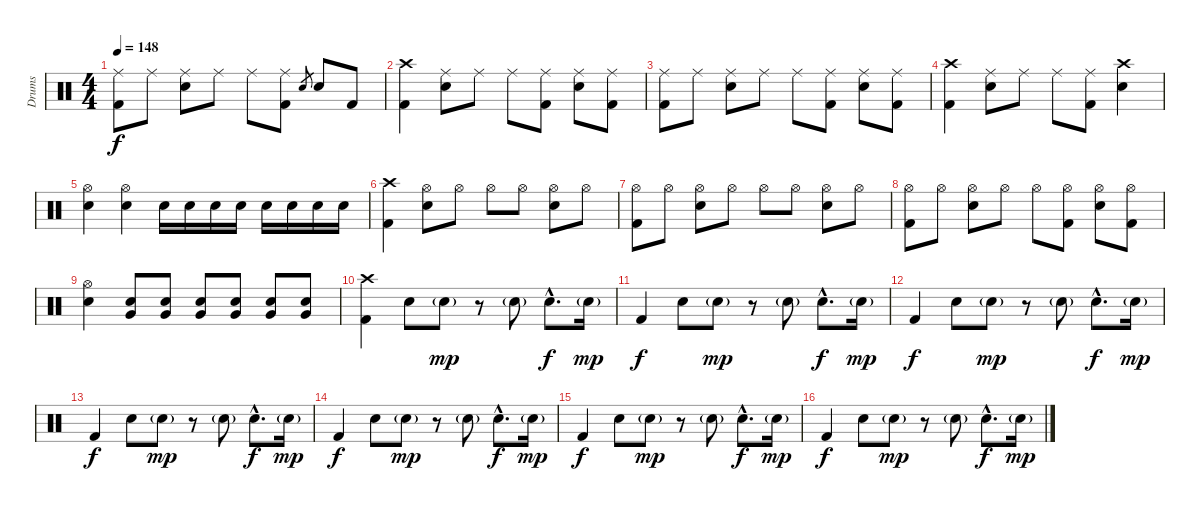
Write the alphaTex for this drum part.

\track ("Drums" "Drums") {instrument percussion}
\staff {score}
\articulation defaults
\ts (4 4)
\tempo 148
\clef neutral
\ks c
("Ride (middle)" "Kick (hit) 2").8{dy f} "Ride (middle)".8 ("Ride (middle)" "Electric Snare (hit)").8 "Ride (middle)".8 "Ride (middle)".8 ("Ride (middle)" "Kick (hit) 2").8 "Electric Snare (hit)".8{gr} "Electric Snare (hit)".8 "Kick (hit) 2".8 |
("Crash high (hit)" "Kick (hit) 2").4 ("Ride (middle)" "Electric Snare (hit)").8 "Ride (middle)".8 "Ride (middle)".8 ("Ride (middle)" "Kick (hit) 2").8 ("Ride (middle)" "Electric Snare (hit)").8 ("Ride (middle)" "Kick (hit) 2").8 |
("Ride (middle)" "Kick (hit) 2").8 "Ride (middle)".8 ("Ride (middle)" "Electric Snare (hit)").8 "Ride (middle)".8 "Ride (middle)".8 ("Ride (middle)" "Kick (hit) 2").8 ("Ride (middle)" "Electric Snare (hit)").8 ("Ride (middle)" "Kick (hit) 2").8 |
("Crash high (hit)" "Kick (hit) 2").4 ("Ride (middle)" "Electric Snare (hit)").8 "Ride (middle)".8 "Ride (middle)".8 ("Ride (middle)" "Kick (hit) 2").8 ("Crash high (hit)" "Electric Snare (hit)").4 |
("Hi-Hat (open)" "Electric Snare (hit)").4 ("Hi-Hat (open)" "Electric Snare (hit)").4 "Electric Snare (hit)".16 "Electric Snare (hit)".16 "Electric Snare (hit)".16 "Electric Snare (hit)".16 "Electric Snare (hit)".16 "Electric Snare (hit)".16 "Electric Snare (hit)".16 "Electric Snare (hit)".16 |
("Crash high (hit)" "Kick (hit) 2").4 ("Hi-Hat (open)" "Electric Snare (hit)").8 "Hi-Hat (open)".8 "Hi-Hat (open)".8 "Hi-Hat (open)".8 ("Hi-Hat (open)" "Electric Snare (hit)").8 "Hi-Hat (open)".8 |
("Hi-Hat (open)" "Kick (hit) 2").8 "Hi-Hat (open)".8 ("Hi-Hat (open)" "Electric Snare (hit)").8 "Hi-Hat (open)".8 "Hi-Hat (open)".8 "Hi-Hat (open)".8 ("Hi-Hat (open)" "Electric Snare (hit)").8 "Hi-Hat (open)".8 |
("Hi-Hat (open)" "Kick (hit) 2").8 "Hi-Hat (open)".8 ("Hi-Hat (open)" "Electric Snare (hit)").8 "Hi-Hat (open)".8 "Hi-Hat (open)".8 ("Hi-Hat (open)" "Kick (hit) 2").8 ("Hi-Hat (open)" "Electric Snare (hit)").8 ("Hi-Hat (open)" "Kick (hit) 2").8 |
("Hi-Hat (open)" "Electric Snare (hit)").4 ("Very Low Tom (hit)" "Electric Snare (hit)").8 ("Very Low Tom (hit)" "Electric Snare (hit)").8 ("Very Low Tom (hit)" "Electric Snare (hit)").8 ("Very Low Tom (hit)" "Electric Snare (hit)").8 ("Very Low Tom (hit)" "Electric Snare (hit)").8 ("Very Low Tom (hit)" "Electric Snare (hit)").8 |
("Crash high (hit)" "Kick (hit) 2").4 "Electric Snare (hit)".8 "Electric Snare (hit)"{g}.8{dy mp} r.8 "Electric Snare (hit)"{g}.8 "Electric Snare (hit)"{hac}.8{d dy f} "Electric Snare (hit)"{g}.16{dy mp} |
"Kick (hit) 2".4{dy f} "Electric Snare (hit)".8 "Electric Snare (hit)"{g}.8{dy mp} r.8 "Electric Snare (hit)"{g}.8 "Electric Snare (hit)"{hac}.8{d dy f} "Electric Snare (hit)"{g}.16{dy mp} |
"Kick (hit) 2".4{dy f} "Electric Snare (hit)".8 "Electric Snare (hit)"{g}.8{dy mp} r.8 "Electric Snare (hit)"{g}.8 "Electric Snare (hit)"{hac}.8{d dy f} "Electric Snare (hit)"{g}.16{dy mp} |
"Kick (hit) 2".4{dy f} "Electric Snare (hit)".8 "Electric Snare (hit)"{g}.8{dy mp} r.8 "Electric Snare (hit)"{g}.8 "Electric Snare (hit)"{hac}.8{d dy f} "Electric Snare (hit)"{g}.16{dy mp} |
"Kick (hit) 2".4{dy f} "Electric Snare (hit)".8 "Electric Snare (hit)"{g}.8{dy mp} r.8 "Electric Snare (hit)"{g}.8 "Electric Snare (hit)"{hac}.8{d dy f} "Electric Snare (hit)"{g}.16{dy mp} |
"Kick (hit) 2".4{dy f} "Electric Snare (hit)".8 "Electric Snare (hit)"{g}.8{dy mp} r.8 "Electric Snare (hit)"{g}.8 "Electric Snare (hit)"{hac}.8{d dy f} "Electric Snare (hit)"{g}.16{dy mp} |
"Kick (hit) 2".4{dy f} "Electric Snare (hit)".8 "Electric Snare (hit)"{g}.8{dy mp} r.8 "Electric Snare (hit)"{g}.8 "Electric Snare (hit)"{hac}.8{d dy f} "Electric Snare (hit)"{g}.16{dy mp}
